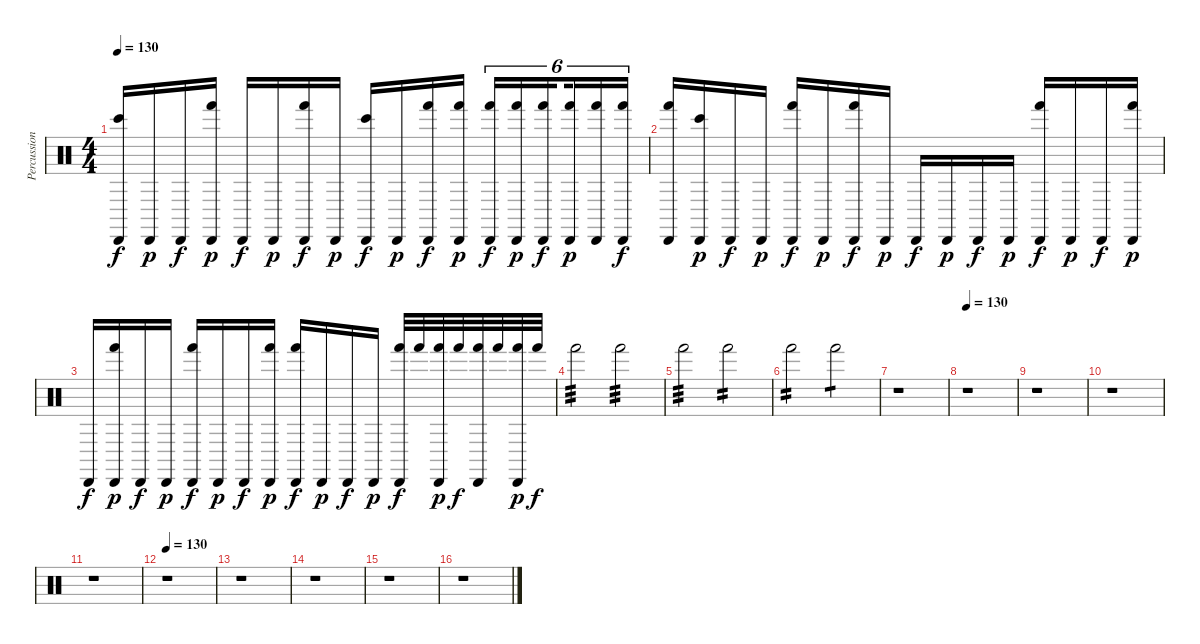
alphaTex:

\track ("Percussion" "Percussion") {instrument percussion}
\staff {score}
\articulation defaults
\ts (4 4)
\tempo 130
\clef neutral
\ks c
("Cabasa (hit)" "Bongo High (hit)").16{dy f} "Cabasa (hit)".16{dy p} "Cabasa (hit)".16{dy f} ("Cabasa (hit)" "Hand (hit)").16{dy p} "Cabasa (hit)".16{dy f} "Cabasa (hit)".16{dy p} ("Cabasa (hit)" "Hand (hit)").16{dy f} "Cabasa (hit)".16{dy p} ("Cabasa (hit)" "Bongo High (hit)").16{dy f} "Cabasa (hit)".16{dy p} ("Cabasa (hit)" "Hand (hit)").16{dy f} ("Cabasa (hit)" "Hand (hit)").16{dy p} ("Cabasa (hit)" "Hand (hit)").16{tu (6 4) dy f} ("Cabasa (hit)" "Hand (hit)").16{tu (6 4) dy p} ("Cabasa (hit)" "Hand (hit)").16{tu (6 4) dy f beam splitsecondary} ("Cabasa (hit)" "Hand (hit)").16{tu (6 4) dy p} ("Cabasa (hit)" "Hand (hit)").16{tu (6 4)} ("Cabasa (hit)" "Hand (hit)").16{tu (6 4) dy f} |
("Cabasa (hit)" "Hand (hit)").16 ("Cabasa (hit)" "Bongo High (hit)").16{dy p} "Cabasa (hit)".16{dy f} "Cabasa (hit)".16{dy p} ("Cabasa (hit)" "Hand (hit)").16{dy f} "Cabasa (hit)".16{dy p} ("Cabasa (hit)" "Hand (hit)").16{dy f} "Cabasa (hit)".16{dy p} "Cabasa (hit)".16{dy f} "Cabasa (hit)".16{dy p} "Cabasa (hit)".16{dy f} "Cabasa (hit)".16{dy p} ("Cabasa (hit)" "Hand (hit)").16{dy f} "Cabasa (hit)".16{dy p} "Cabasa (hit)".16{dy f} ("Cabasa (hit)" "Hand (hit)").16{dy p} |
"Cabasa (hit)".16{dy f} ("Cabasa (hit)" "Hand (hit)").16{dy p} "Cabasa (hit)".16{dy f} "Cabasa (hit)".16{dy p} ("Cabasa (hit)" "Hand (hit)").16{dy f} "Cabasa (hit)".16{dy p} "Cabasa (hit)".16{dy f} ("Cabasa (hit)" "Hand (hit)").16{dy p} ("Cabasa (hit)" "Hand (hit)").16{dy f} "Cabasa (hit)".16{dy p} "Cabasa (hit)".16{dy f} "Cabasa (hit)".16{dy p} ("Cabasa (hit)" "Hand (hit)").32{dy f} "Hand (hit)".32 ("Cabasa (hit)" "Hand (hit)").32{dy p} "Hand (hit)".32{dy f} ("Cabasa (hit)" "Hand (hit)").32 "Hand (hit)".32 ("Cabasa (hit)" "Hand (hit)").32{dy p} "Hand (hit)".32{dy f} |
"Hand (hit)".2{tp 3} "Hand (hit)".2{tp 3} |
"Hand (hit)".2{tp 3} "Hand (hit)".2{tp 2} |
"Hand (hit)".2{tp 2} "Hand (hit)".2{tp 1} |
r.1 |
\tempo 130
r.1 |
r.1 |
r.1 |
r.1 |
\tempo 130
r.1 |
r.1 |
r.1 |
r.1 |
r.1
